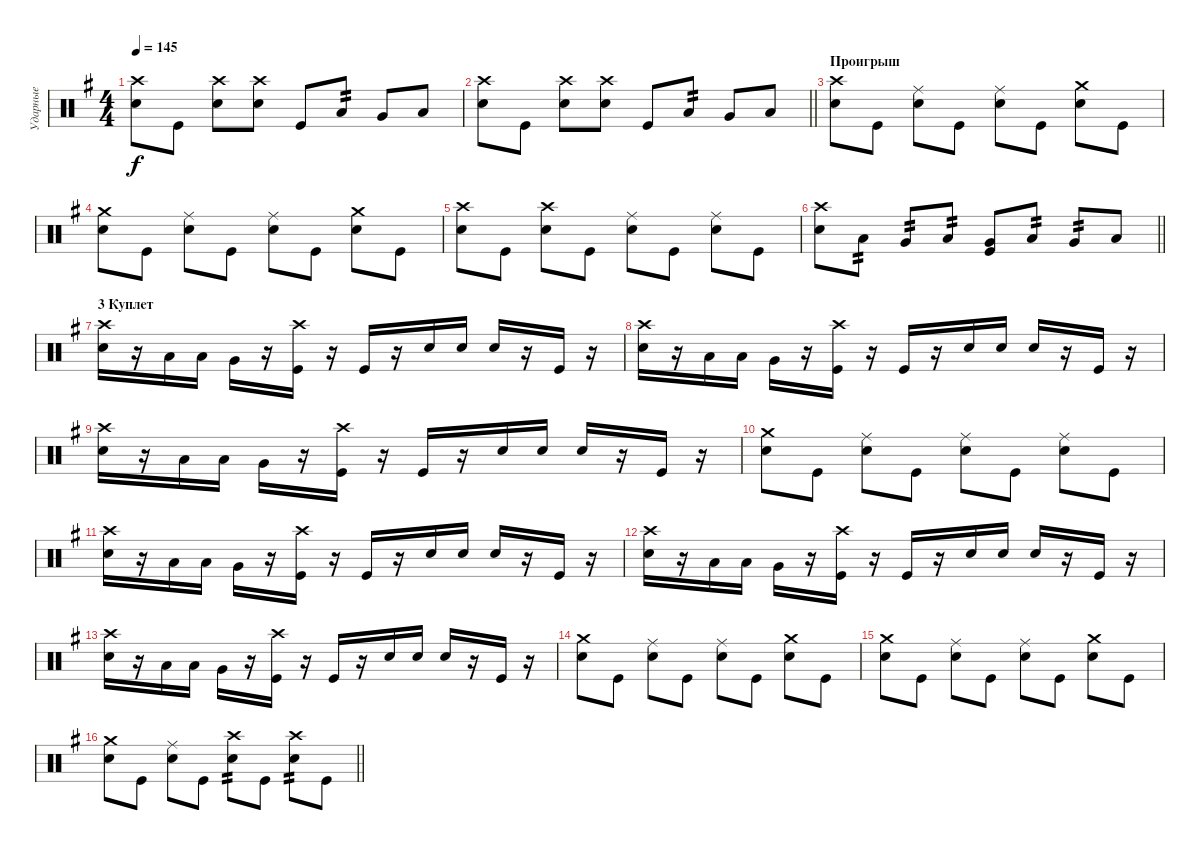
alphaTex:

\track ("Ударные" "Ударные") {instrument percussion}
\staff {score}
\articulation defaults
\ts (4 4)
\tempo 145
\clef neutral
\ks eminor
("Crash high (hit)" "Snare (hit) 2").8{dy f} "Kick (hit)".8 ("Crash high (hit)" "Snare (hit) 2").8 ("Crash high (hit)" "Snare (hit) 2").8 "Kick (hit)".8 "Low Tom (hit)".8{tp 2} "Very Low Tom (hit)".8 "Low Floor Tom (hit)".8 |
\barLineRight lightlight
("Crash high (hit)" "Snare (hit) 2").8 "Kick (hit)".8 ("Crash high (hit)" "Snare (hit) 2").8 ("Crash high (hit)" "Snare (hit) 2").8 "Kick (hit)".8 "Low Tom (hit)".8{tp 2} "Very Low Tom (hit)".8 "Low Floor Tom (hit)".8 |
\section ("" "Проигрыш")
("Crash high (hit)" "Snare (hit) 2").8 "Kick (hit)".8 ("Ride (middle)" "Snare (hit) 2").8 "Kick (hit)".8 ("Ride (middle)" "Snare (hit) 2").8 "Kick (hit)".8 ("Crash medium (hit)" "Snare (hit) 2").8 "Kick (hit)".8 |
("Crash medium (hit)" "Snare (hit) 2").8 "Kick (hit)".8 ("Ride (middle)" "Snare (hit) 2").8 "Kick (hit)".8 ("Ride (middle)" "Snare (hit) 2").8 "Kick (hit)".8 ("Crash medium (hit)" "Snare (hit) 2").8 "Kick (hit)".8 |
("Crash high (hit)" "Snare (hit) 2").8 "Kick (hit)".8 ("Crash high (hit)" "Snare (hit) 2").8 "Kick (hit)".8 ("Ride (middle)" "Snare (hit) 2").8 "Kick (hit)".8 ("Ride (middle)" "Snare (hit) 2").8 "Kick (hit)".8 |
\barLineRight lightlight
("Crash high (hit)" "Snare (hit) 2").8 "Low Tom (hit)".8{tp 2} "Very Low Tom (hit)".8{tp 2} "Low Tom (hit)".8{tp 2} ("Very Low Tom (hit)" "Kick (hit)").8 "Low Tom (hit)".8{tp 2} "Very Low Tom (hit)".8{tp 2} "Low Floor Tom (hit)".8 |
\section ("" "3 Куплет")
("Crash high (hit)" "Snare (hit) 2").16 r.16 "Low Tom (hit)".16 "Low Tom (hit)".16 "Very Low Tom (hit)".16 r.16 ("Crash high (hit)" "Kick (hit)").16 r.16 "Kick (hit)".16 r.16 "Snare (hit) 2".16 "Snare (hit) 2".16 "Snare (hit) 2".16 r.16 "Kick (hit)".16 r.16 |
("Crash high (hit)" "Snare (hit) 2").16 r.16 "Low Tom (hit)".16 "Low Tom (hit)".16 "Very Low Tom (hit)".16 r.16 ("Crash high (hit)" "Kick (hit)").16 r.16 "Kick (hit)".16 r.16 "Snare (hit) 2".16 "Snare (hit) 2".16 "Snare (hit) 2".16 r.16 "Kick (hit)".16 r.16 |
("Crash high (hit)" "Snare (hit) 2").16 r.16 "Low Tom (hit)".16 "Low Tom (hit)".16 "Very Low Tom (hit)".16 r.16 ("Crash high (hit)" "Kick (hit)").16 r.16 "Kick (hit)".16 r.16 "Snare (hit) 2".16 "Snare (hit) 2".16 "Snare (hit) 2".16 r.16 "Kick (hit)".16 r.16 |
("Crash medium (hit)" "Snare (hit) 2").8 "Kick (hit)".8 ("Ride (middle)" "Snare (hit) 2").8 "Kick (hit)".8 ("Ride (middle)" "Snare (hit) 2").8 "Kick (hit)".8 ("Ride (middle)" "Snare (hit) 2").8 "Kick (hit)".8 |
("Crash high (hit)" "Snare (hit) 2").16 r.16 "Low Tom (hit)".16 "Low Tom (hit)".16 "Very Low Tom (hit)".16 r.16 ("Crash high (hit)" "Kick (hit)").16 r.16 "Kick (hit)".16 r.16 "Snare (hit) 2".16 "Snare (hit) 2".16 "Snare (hit) 2".16 r.16 "Kick (hit)".16 r.16 |
("Crash high (hit)" "Snare (hit) 2").16 r.16 "Low Tom (hit)".16 "Low Tom (hit)".16 "Very Low Tom (hit)".16 r.16 ("Crash high (hit)" "Kick (hit)").16 r.16 "Kick (hit)".16 r.16 "Snare (hit) 2".16 "Snare (hit) 2".16 "Snare (hit) 2".16 r.16 "Kick (hit)".16 r.16 |
("Crash high (hit)" "Snare (hit) 2").16 r.16 "Low Tom (hit)".16 "Low Tom (hit)".16 "Very Low Tom (hit)".16 r.16 ("Crash high (hit)" "Kick (hit)").16 r.16 "Kick (hit)".16 r.16 "Snare (hit) 2".16 "Snare (hit) 2".16 "Snare (hit) 2".16 r.16 "Kick (hit)".16 r.16 |
("Crash medium (hit)" "Snare (hit) 2").8 "Kick (hit)".8 ("Ride (middle)" "Snare (hit) 2").8 "Kick (hit)".8 ("Ride (middle)" "Snare (hit) 2").8 "Kick (hit)".8 ("Crash medium (hit)" "Snare (hit) 2").8 "Kick (hit)".8 |
("Crash medium (hit)" "Snare (hit) 2").8 "Kick (hit)".8 ("Ride (middle)" "Snare (hit) 2").8 "Kick (hit)".8 ("Ride (middle)" "Snare (hit) 2").8 "Kick (hit)".8 ("Crash medium (hit)" "Snare (hit) 2").8 "Kick (hit)".8 |
\barLineRight lightlight
("Crash medium (hit)" "Snare (hit) 2").8 "Kick (hit)".8 ("Ride (middle)" "Snare (hit) 2").8 "Kick (hit)".8 ("Crash high (hit)" "Snare (hit) 2").8{tp 2} "Kick (hit)".8 ("Crash high (hit)" "Snare (hit) 2").8{tp 2} "Kick (hit)".8
